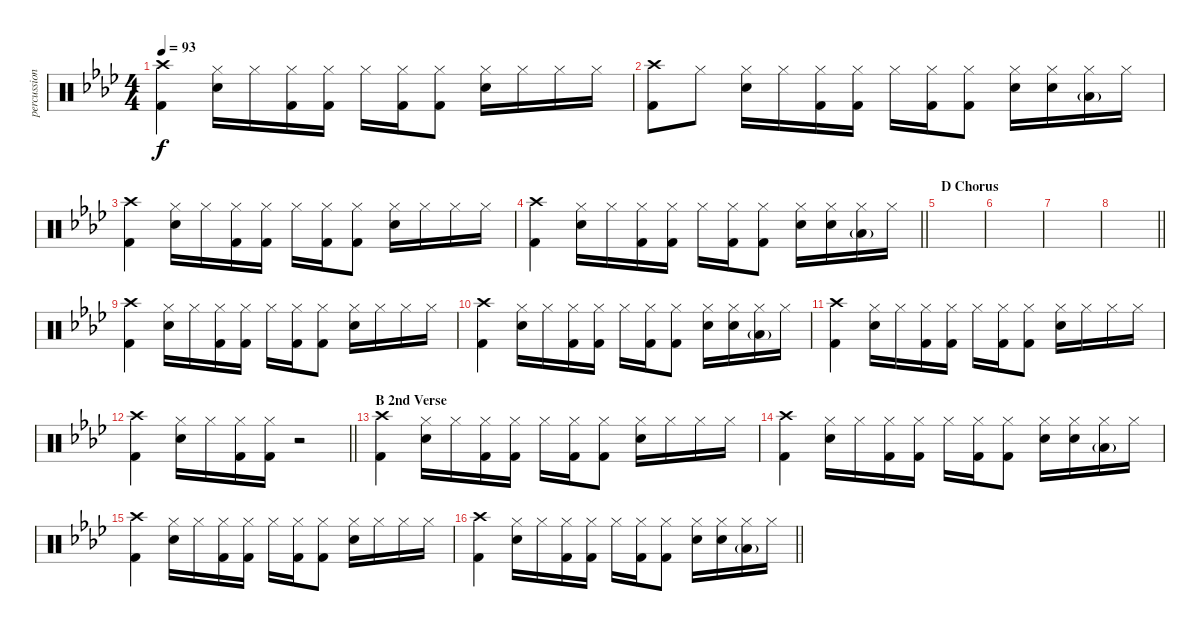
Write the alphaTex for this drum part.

\track ("percussion" "percussion") {instrument percussion}
\staff {score}
\articulation defaults
\ts (4 4)
\tempo 93
\clef neutral
\ks fminor
("Crash high (hit)" "Kick (hit) 2").4{dy f} ("Snare (hit) 2" "Hi-Hat (closed)").16 "Hi-Hat (closed)".16 ("Hi-Hat (closed)" "Kick (hit) 2").16 ("Hi-Hat (closed)" "Kick (hit) 2").16 "Hi-Hat (closed)".16 ("Hi-Hat (closed)" "Kick (hit) 2").16 ("Hi-Hat (closed)" "Kick (hit) 2").8 ("Snare (hit) 2" "Hi-Hat (closed)").16 "Hi-Hat (closed)".16 "Hi-Hat (closed)".16 "Hi-Hat (closed)".16 |
("Crash high (hit)" "Kick (hit) 2").8 "Hi-Hat (closed)".8 ("Snare (hit) 2" "Hi-Hat (closed)").16 "Hi-Hat (closed)".16 ("Hi-Hat (closed)" "Kick (hit) 2").16 ("Hi-Hat (closed)" "Kick (hit) 2").16 "Hi-Hat (closed)".16 ("Hi-Hat (closed)" "Kick (hit) 2").16 ("Hi-Hat (closed)" "Kick (hit) 2").8 ("Snare (hit) 2" "Hi-Hat (closed)").16 ("Snare (hit) 2" "Hi-Hat (closed)").16 ("Low Floor Tom (hit)"{g} "Hi-Hat (closed)").16 "Hi-Hat (closed)".16 |
("Crash high (hit)" "Kick (hit) 2").4 ("Snare (hit) 2" "Hi-Hat (closed)").16 "Hi-Hat (closed)".16 ("Hi-Hat (closed)" "Kick (hit) 2").16 ("Hi-Hat (closed)" "Kick (hit) 2").16 "Hi-Hat (closed)".16 ("Hi-Hat (closed)" "Kick (hit) 2").16 ("Hi-Hat (closed)" "Kick (hit) 2").8 ("Snare (hit) 2" "Hi-Hat (closed)").16 "Hi-Hat (closed)".16 "Hi-Hat (closed)".16 "Hi-Hat (closed)".16 |
\barLineRight lightlight
("Crash high (hit)" "Kick (hit) 2").4 ("Snare (hit) 2" "Hi-Hat (closed)").16 "Hi-Hat (closed)".16 ("Hi-Hat (closed)" "Kick (hit) 2").16 ("Hi-Hat (closed)" "Kick (hit) 2").16 "Hi-Hat (closed)".16 ("Hi-Hat (closed)" "Kick (hit) 2").16 ("Hi-Hat (closed)" "Kick (hit) 2").8 ("Snare (hit) 2" "Hi-Hat (closed)").16 ("Snare (hit) 2" "Hi-Hat (closed)").16 ("Low Floor Tom (hit)"{g} "Hi-Hat (closed)").16 "Hi-Hat (closed)".16 |
\section ("" "D Chorus")
|
|
|
\barLineRight lightlight
|
("Crash high (hit)" "Kick (hit) 2").4 ("Snare (hit) 2" "Hi-Hat (closed)").16 "Hi-Hat (closed)".16 ("Hi-Hat (closed)" "Kick (hit) 2").16 ("Hi-Hat (closed)" "Kick (hit) 2").16 "Hi-Hat (closed)".16 ("Hi-Hat (closed)" "Kick (hit) 2").16 ("Hi-Hat (closed)" "Kick (hit) 2").8 ("Snare (hit) 2" "Hi-Hat (closed)").16 "Hi-Hat (closed)".16 "Hi-Hat (closed)".16 "Hi-Hat (closed)".16 |
("Crash high (hit)" "Kick (hit) 2").4 ("Snare (hit) 2" "Hi-Hat (closed)").16 "Hi-Hat (closed)".16 ("Hi-Hat (closed)" "Kick (hit) 2").16 ("Hi-Hat (closed)" "Kick (hit) 2").16 "Hi-Hat (closed)".16 ("Hi-Hat (closed)" "Kick (hit) 2").16 ("Hi-Hat (closed)" "Kick (hit) 2").8 ("Snare (hit) 2" "Hi-Hat (closed)").16 ("Snare (hit) 2" "Hi-Hat (closed)").16 ("Low Floor Tom (hit)"{g} "Hi-Hat (closed)").16 "Hi-Hat (closed)".16 |
("Crash high (hit)" "Kick (hit) 2").4 ("Snare (hit) 2" "Hi-Hat (closed)").16 "Hi-Hat (closed)".16 ("Hi-Hat (closed)" "Kick (hit) 2").16 ("Hi-Hat (closed)" "Kick (hit) 2").16 "Hi-Hat (closed)".16 ("Hi-Hat (closed)" "Kick (hit) 2").16 ("Hi-Hat (closed)" "Kick (hit) 2").8 ("Snare (hit) 2" "Hi-Hat (closed)").16 "Hi-Hat (closed)".16 "Hi-Hat (closed)".16 "Hi-Hat (closed)".16 |
\barLineRight lightlight
("Crash high (hit)" "Kick (hit) 2").4 ("Snare (hit) 2" "Hi-Hat (closed)").16 "Hi-Hat (closed)".16 ("Hi-Hat (closed)" "Kick (hit) 2").16 ("Hi-Hat (closed)" "Kick (hit) 2").16 r.2 |
\section ("" "B 2nd Verse")
("Crash high (hit)" "Kick (hit) 2").4 ("Snare (hit) 2" "Hi-Hat (closed)").16 "Hi-Hat (closed)".16 ("Hi-Hat (closed)" "Kick (hit) 2").16 ("Hi-Hat (closed)" "Kick (hit) 2").16 "Hi-Hat (closed)".16 ("Hi-Hat (closed)" "Kick (hit) 2").16 ("Hi-Hat (closed)" "Kick (hit) 2").8 ("Snare (hit) 2" "Hi-Hat (closed)").16 "Hi-Hat (closed)".16 "Hi-Hat (closed)".16 "Hi-Hat (closed)".16 |
("Crash high (hit)" "Kick (hit) 2").4 ("Snare (hit) 2" "Hi-Hat (closed)").16 "Hi-Hat (closed)".16 ("Hi-Hat (closed)" "Kick (hit) 2").16 ("Hi-Hat (closed)" "Kick (hit) 2").16 "Hi-Hat (closed)".16 ("Hi-Hat (closed)" "Kick (hit) 2").16 ("Hi-Hat (closed)" "Kick (hit) 2").8 ("Electric Snare (hit)" "Hi-Hat (closed)").16 ("Electric Snare (hit)" "Hi-Hat (closed)").16 ("Low Floor Tom (hit)"{g} "Hi-Hat (closed)").16 "Hi-Hat (closed)".16 |
("Crash high (hit)" "Kick (hit) 2").4 ("Snare (hit) 2" "Hi-Hat (closed)").16 "Hi-Hat (closed)".16 ("Hi-Hat (closed)" "Kick (hit) 2").16 ("Hi-Hat (closed)" "Kick (hit) 2").16 "Hi-Hat (closed)".16 ("Hi-Hat (closed)" "Kick (hit) 2").16 ("Hi-Hat (closed)" "Kick (hit) 2").8 ("Electric Snare (hit)" "Hi-Hat (closed)").16 "Hi-Hat (closed)".16 "Hi-Hat (closed)".16 "Hi-Hat (closed)".16 |
\barLineRight lightlight
("Crash high (hit)" "Kick (hit) 2").4 ("Snare (hit) 2" "Hi-Hat (closed)").16 "Hi-Hat (closed)".16 ("Hi-Hat (closed)" "Kick (hit) 2").16 ("Hi-Hat (closed)" "Kick (hit) 2").16 "Hi-Hat (closed)".16 ("Hi-Hat (closed)" "Kick (hit) 2").16 ("Hi-Hat (closed)" "Kick (hit) 2").8 ("Snare (hit) 2" "Hi-Hat (closed)").16 ("Snare (hit) 2" "Hi-Hat (closed)").16 ("Low Floor Tom (hit)"{g} "Hi-Hat (closed)").16 "Hi-Hat (closed)".16
